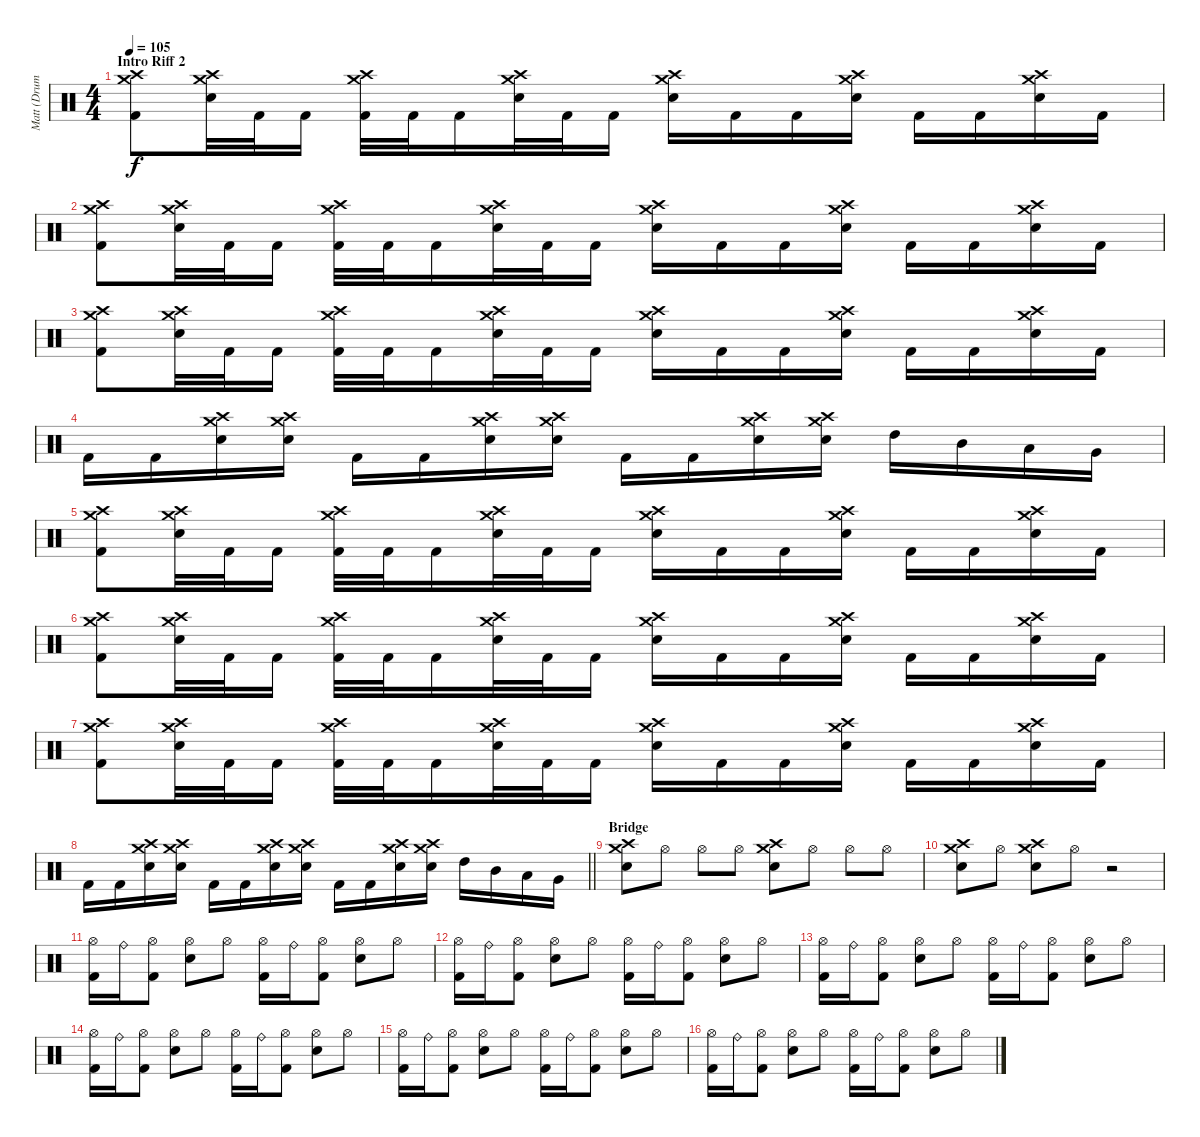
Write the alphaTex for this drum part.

\track ("Matt (Drums)" "Matt (Drum") {instrument percussion}
\staff {score}
\articulation defaults
\ts (4 4)
\section ("" "Intro Riff 2")
\tempo 105
\clef neutral
\ks c
("Crash medium (hit)" "Crash high (hit)" "Kick (hit) 2").8{dy f} ("Crash medium (hit)" "Crash high (hit)" "Electric Snare (hit)").32 "Kick (hit) 2".32 "Kick (hit) 2".16 ("Crash medium (hit)" "Crash high (hit)" "Kick (hit) 2").32 "Kick (hit) 2".32 "Kick (hit) 2".16 ("Crash medium (hit)" "Crash high (hit)" "Electric Snare (hit)").32 "Kick (hit) 2".32 "Kick (hit) 2".16 ("Crash medium (hit)" "Crash high (hit)" "Electric Snare (hit)").16 "Kick (hit) 2".16 "Kick (hit) 2".16 ("Crash medium (hit)" "Crash high (hit)" "Electric Snare (hit)").16 "Kick (hit) 2".16 "Kick (hit) 2".16 ("Crash medium (hit)" "Crash high (hit)" "Electric Snare (hit)").16 "Kick (hit) 2".16 |
("Crash medium (hit)" "Crash high (hit)" "Kick (hit) 2").8 ("Crash medium (hit)" "Crash high (hit)" "Electric Snare (hit)").32 "Kick (hit) 2".32 "Kick (hit) 2".16 ("Crash medium (hit)" "Crash high (hit)" "Kick (hit) 2").32 "Kick (hit) 2".32 "Kick (hit) 2".16 ("Crash medium (hit)" "Crash high (hit)" "Electric Snare (hit)").32 "Kick (hit) 2".32 "Kick (hit) 2".16 ("Crash medium (hit)" "Crash high (hit)" "Electric Snare (hit)").16 "Kick (hit) 2".16 "Kick (hit) 2".16 ("Crash medium (hit)" "Crash high (hit)" "Electric Snare (hit)").16 "Kick (hit) 2".16 "Kick (hit) 2".16 ("Crash medium (hit)" "Crash high (hit)" "Electric Snare (hit)").16 "Kick (hit) 2".16 |
("Crash medium (hit)" "Crash high (hit)" "Kick (hit) 2").8 ("Crash medium (hit)" "Crash high (hit)" "Electric Snare (hit)").32 "Kick (hit) 2".32 "Kick (hit) 2".16 ("Crash medium (hit)" "Crash high (hit)" "Kick (hit) 2").32 "Kick (hit) 2".32 "Kick (hit) 2".16 ("Crash medium (hit)" "Crash high (hit)" "Electric Snare (hit)").32 "Kick (hit) 2".32 "Kick (hit) 2".16 ("Crash medium (hit)" "Crash high (hit)" "Electric Snare (hit)").16 "Kick (hit) 2".16 "Kick (hit) 2".16 ("Crash medium (hit)" "Crash high (hit)" "Electric Snare (hit)").16 "Kick (hit) 2".16 "Kick (hit) 2".16 ("Crash medium (hit)" "Crash high (hit)" "Electric Snare (hit)").16 "Kick (hit) 2".16 |
"Kick (hit) 2".16 "Kick (hit) 2".16 ("Crash medium (hit)" "Crash high (hit)" "Electric Snare (hit)").16 ("Crash medium (hit)" "Crash high (hit)" "Electric Snare (hit)").16 "Kick (hit) 2".16 "Kick (hit) 2".16 ("Crash medium (hit)" "Crash high (hit)" "Electric Snare (hit)").16 ("Crash medium (hit)" "Crash high (hit)" "Electric Snare (hit)").16 "Kick (hit) 2".16 "Kick (hit) 2".16 ("Crash medium (hit)" "Crash high (hit)" "Electric Snare (hit)").16 ("Crash medium (hit)" "Crash high (hit)" "Electric Snare (hit)").16 "High Tom (hit)".16 "Mid Tom (hit)".16 "Low Tom (hit)".16 "Very Low Tom (hit)".16 |
("Crash medium (hit)" "Crash high (hit)" "Kick (hit) 2").8 ("Crash medium (hit)" "Crash high (hit)" "Electric Snare (hit)").32 "Kick (hit) 2".32 "Kick (hit) 2".16 ("Crash medium (hit)" "Crash high (hit)" "Kick (hit) 2").32 "Kick (hit) 2".32 "Kick (hit) 2".16 ("Crash medium (hit)" "Crash high (hit)" "Electric Snare (hit)").32 "Kick (hit) 2".32 "Kick (hit) 2".16 ("Crash medium (hit)" "Crash high (hit)" "Electric Snare (hit)").16 "Kick (hit) 2".16 "Kick (hit) 2".16 ("Crash medium (hit)" "Crash high (hit)" "Electric Snare (hit)").16 "Kick (hit) 2".16 "Kick (hit) 2".16 ("Crash medium (hit)" "Crash high (hit)" "Electric Snare (hit)").16 "Kick (hit) 2".16 |
("Crash medium (hit)" "Crash high (hit)" "Kick (hit) 2").8 ("Crash medium (hit)" "Crash high (hit)" "Electric Snare (hit)").32 "Kick (hit) 2".32 "Kick (hit) 2".16 ("Crash medium (hit)" "Crash high (hit)" "Kick (hit) 2").32 "Kick (hit) 2".32 "Kick (hit) 2".16 ("Crash medium (hit)" "Crash high (hit)" "Electric Snare (hit)").32 "Kick (hit) 2".32 "Kick (hit) 2".16 ("Crash medium (hit)" "Crash high (hit)" "Electric Snare (hit)").16 "Kick (hit) 2".16 "Kick (hit) 2".16 ("Crash medium (hit)" "Crash high (hit)" "Electric Snare (hit)").16 "Kick (hit) 2".16 "Kick (hit) 2".16 ("Crash medium (hit)" "Crash high (hit)" "Electric Snare (hit)").16 "Kick (hit) 2".16 |
("Crash medium (hit)" "Crash high (hit)" "Kick (hit) 2").8 ("Crash medium (hit)" "Crash high (hit)" "Electric Snare (hit)").32 "Kick (hit) 2".32 "Kick (hit) 2".16 ("Crash medium (hit)" "Crash high (hit)" "Kick (hit) 2").32 "Kick (hit) 2".32 "Kick (hit) 2".16 ("Crash medium (hit)" "Crash high (hit)" "Electric Snare (hit)").32 "Kick (hit) 2".32 "Kick (hit) 2".16 ("Crash medium (hit)" "Crash high (hit)" "Electric Snare (hit)").16 "Kick (hit) 2".16 "Kick (hit) 2".16 ("Crash medium (hit)" "Crash high (hit)" "Electric Snare (hit)").16 "Kick (hit) 2".16 "Kick (hit) 2".16 ("Crash medium (hit)" "Crash high (hit)" "Electric Snare (hit)").16 "Kick (hit) 2".16 |
\barLineRight lightlight "Kick (hit) 2".16 "Kick (hit) 2".16
("Crash medium (hit)" "Crash high (hit)" "Electric Snare (hit)").16 ("Crash medium (hit)" "Crash high (hit)" "Electric Snare (hit)").16 "Kick (hit) 2".16 "Kick (hit) 2".16 ("Crash medium (hit)" "Crash high (hit)" "Electric Snare (hit)").16 ("Crash medium (hit)" "Crash high (hit)" "Electric Snare (hit)").16 "Kick (hit) 2".16 "Kick (hit) 2".16 ("Crash medium (hit)" "Crash high (hit)" "Electric Snare (hit)").16 ("Crash medium (hit)" "Crash high (hit)" "Electric Snare (hit)").16 "High Tom (hit)".16 "Mid Tom (hit)".16 "Low Tom (hit)".16 "Very Low Tom (hit)".16 |
\section ("" "Bridge")
("Crash high (hit)" "Crash medium (hit)" "Electric Snare (hit)").8 "Hi-Hat (open)".8 "Hi-Hat (open)".8 "Hi-Hat (open)".8 ("Crash high (hit)" "Crash medium (hit)" "Electric Snare (hit)").8 "Hi-Hat (open)".8 "Hi-Hat (open)".8 "Hi-Hat (open)".8 |
("Crash high (hit)" "Crash medium (hit)" "Electric Snare (hit)").8 "Hi-Hat (open)".8 ("Crash high (hit)" "Crash medium (hit)" "Electric Snare (hit)").8 "Hi-Hat (open)".8 r.2 |
("Hi-Hat (open)" "Kick (hit) 2").16 "Ride (bell)".16 ("Hi-Hat (open)" "Kick (hit) 2").8 ("Hi-Hat (open)" "Electric Snare (hit)").8 "Hi-Hat (open)".8 ("Hi-Hat (open)" "Kick (hit) 2").16 "Ride (bell)".16 ("Hi-Hat (open)" "Kick (hit) 2").8 ("Hi-Hat (open)" "Electric Snare (hit)").8 "Hi-Hat (open)".8 |
("Hi-Hat (open)" "Kick (hit) 2").16 "Ride (bell)".16 ("Hi-Hat (open)" "Kick (hit) 2").8 ("Hi-Hat (open)" "Electric Snare (hit)").8 "Hi-Hat (open)".8 ("Hi-Hat (open)" "Kick (hit) 2").16 "Ride (bell)".16 ("Hi-Hat (open)" "Kick (hit) 2").8 ("Hi-Hat (open)" "Electric Snare (hit)").8 "Hi-Hat (open)".8 |
("Hi-Hat (open)" "Kick (hit) 2").16 "Ride (bell)".16 ("Hi-Hat (open)" "Kick (hit) 2").8 ("Hi-Hat (open)" "Electric Snare (hit)").8 "Hi-Hat (open)".8 ("Hi-Hat (open)" "Kick (hit) 2").16 "Ride (bell)".16 ("Hi-Hat (open)" "Kick (hit) 2").8 ("Hi-Hat (open)" "Electric Snare (hit)").8 "Hi-Hat (open)".8 |
("Hi-Hat (open)" "Kick (hit) 2").16 "Ride (bell)".16 ("Hi-Hat (open)" "Kick (hit) 2").8 ("Hi-Hat (open)" "Electric Snare (hit)").8 "Hi-Hat (open)".8 ("Hi-Hat (open)" "Kick (hit) 2").16 "Ride (bell)".16 ("Hi-Hat (open)" "Kick (hit) 2").8 ("Hi-Hat (open)" "Electric Snare (hit)").8 "Hi-Hat (open)".8 |
("Hi-Hat (open)" "Kick (hit) 2").16 "Ride (bell)".16 ("Hi-Hat (open)" "Kick (hit) 2").8 ("Hi-Hat (open)" "Electric Snare (hit)").8 "Hi-Hat (open)".8 ("Hi-Hat (open)" "Kick (hit) 2").16 "Ride (bell)".16 ("Hi-Hat (open)" "Kick (hit) 2").8 ("Hi-Hat (open)" "Electric Snare (hit)").8 "Hi-Hat (open)".8 |
("Hi-Hat (open)" "Kick (hit) 2").16 "Ride (bell)".16 ("Hi-Hat (open)" "Kick (hit) 2").8 ("Hi-Hat (open)" "Electric Snare (hit)").8 "Hi-Hat (open)".8 ("Hi-Hat (open)" "Kick (hit) 2").16 "Ride (bell)".16 ("Hi-Hat (open)" "Kick (hit) 2").8 ("Hi-Hat (open)" "Electric Snare (hit)").8 "Hi-Hat (open)".8
